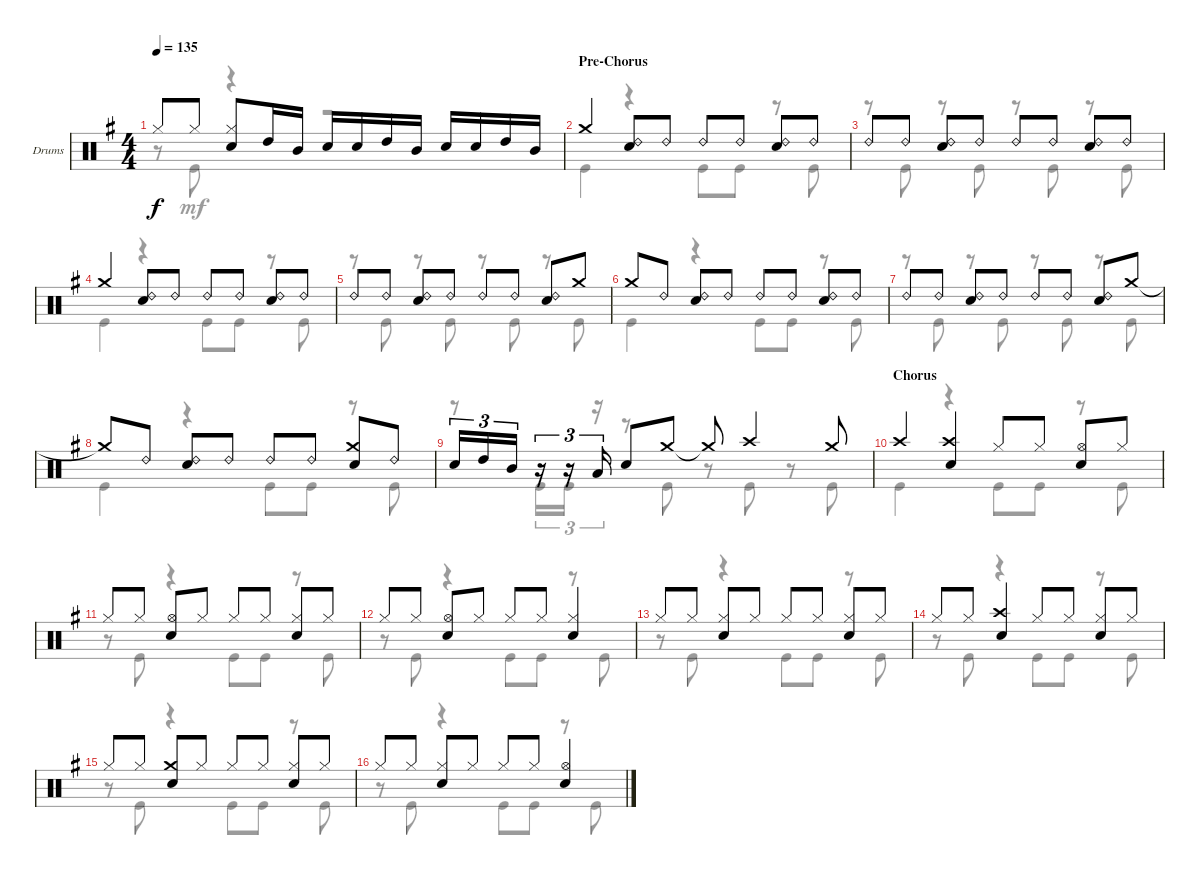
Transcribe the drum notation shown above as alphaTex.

\defaultSystemsLayout 4
\bracketExtendMode groupsimilarinstruments
\firstSystemTrackNameOrientation horizontal
\otherSystemsTrackNameOrientation horizontal
\track ("Drumkit" "Drums") {instrument percussion}
\staff {score}
\articulation defaults
\voice
\ts (4 4)
\tempo 135
\clef neutral
\ks g "Hi-Hat (closed)".8{dy f} "Hi-Hat (closed)".8
("Hi-Hat (closed)" "Snare (hit) 2").8 "High Tom (hit)".16 "Mid Tom (hit)".16 "Snare (hit) 2".16 "Snare (hit) 2".16 "High Tom (hit)".16 "Mid Tom (hit)".16 "Snare (hit) 2".16 "Snare (hit) 2".16 "High Tom (hit)".16 "Mid Tom (hit)".16 |
\section ("" "Pre-Chorus")
"Crash medium (hit)".4 ("Ride (bell) 2" "Snare (hit) 2").8 "Ride (bell) 2".8 "Ride (bell) 2".8 "Ride (bell) 2".8 ("Ride (bell) 2" "Snare (hit) 2").8 "Ride (bell) 2".8 |
"Ride (bell) 2".8 "Ride (bell) 2".8 ("Ride (bell) 2" "Snare (hit) 2").8 "Ride (bell) 2".8 "Ride (bell) 2".8 "Ride (bell) 2".8 ("Ride (bell) 2" "Snare (hit) 2").8 "Ride (bell) 2".8 |
"Crash medium (hit)".4 ("Ride (bell) 2" "Snare (hit) 2").8 "Ride (bell) 2".8 "Ride (bell) 2".8 "Ride (bell) 2".8 ("Ride (bell) 2" "Snare (hit) 2").8 "Ride (bell) 2".8 |
"Ride (bell) 2".8 "Ride (bell) 2".8 ("Ride (bell) 2" "Snare (hit) 2").8 "Ride (bell) 2".8 "Ride (bell) 2".8 "Ride (bell) 2".8 ("Ride (bell) 2" "Snare (hit) 2").8 "Crash medium (hit)".8 |
"Crash medium (hit)".8 "Ride (bell) 2".8 ("Ride (bell) 2" "Snare (hit) 2").8 "Ride (bell) 2".8 "Ride (bell) 2".8 "Ride (bell) 2".8 ("Ride (bell) 2" "Snare (hit) 2").8 "Ride (bell) 2".8 |
"Ride (bell) 2".8 "Ride (bell) 2".8 ("Ride (bell) 2" "Snare (hit) 2").8 "Ride (bell) 2".8 "Ride (bell) 2".8 "Ride (bell) 2".8 ("Ride (bell) 2" "Snare (hit) 2").8 "Crash medium (hit)".8 |
"Crash medium (hit)"{t}.8 "Ride (bell) 2".8 ("Ride (bell) 2" "Snare (hit) 2").8 "Ride (bell) 2".8 "Ride (bell) 2".8 "Ride (bell) 2".8 ("Crash medium (hit)" "Snare (hit) 2").8 "Ride (bell) 2".8 |
"Snare (hit) 2".16{tu (3 2)} "High Tom (hit)".16{tu (3 2)} "Mid Tom (hit)".16{tu (3 2)} r.16{tu (3 2)} r.16{tu (3 2)} "Low Tom (hit)".16{tu (3 2)} "Snare (hit) 2".8 "Crash medium (hit)".8 "Crash medium (hit)"{t}.8 "Crash high (hit)".4 "Crash medium (hit)".8 |
\section ("" "Chorus")
"Crash high (hit)".4 ("Crash high (hit)" "Snare (hit) 2").4 "Hi-Hat (closed)".8 "Hi-Hat (closed)".8 ("Hi-Hat (open)" "Snare (hit) 2").8 "Hi-Hat (closed)".8 |
"Hi-Hat (closed)".8 "Hi-Hat (closed)".8 ("Hi-Hat (open)" "Snare (hit) 2").8 "Hi-Hat (closed)".8 "Hi-Hat (closed)".8 "Hi-Hat (closed)".8 ("Hi-Hat (closed)" "Snare (hit) 2").8 "Hi-Hat (closed)".8 |
"Hi-Hat (closed)".8 "Hi-Hat (closed)".8 ("Hi-Hat (open)" "Snare (hit) 2").8 "Hi-Hat (closed)".8 "Hi-Hat (closed)".8 "Hi-Hat (closed)".8 ("Hi-Hat (closed)" "Snare (hit) 2").4 |
"Hi-Hat (closed)".8 "Hi-Hat (closed)".8 ("Hi-Hat (closed)" "Snare (hit) 2").8 "Hi-Hat (closed)".8 "Hi-Hat (closed)".8 "Hi-Hat (closed)".8 ("Hi-Hat (closed)" "Snare (hit) 2").8 "Hi-Hat (closed)".8 |
"Hi-Hat (closed)".8 "Hi-Hat (closed)".8 ("Crash high (hit)" "Snare (hit) 2").4 "Hi-Hat (closed)".8 "Hi-Hat (closed)".8 ("Hi-Hat (closed)" "Snare (hit) 2").8 "Hi-Hat (closed)".8 |
"Hi-Hat (closed)".8 "Hi-Hat (closed)".8 ("Crash medium (hit)" "Snare (hit) 2").8 "Hi-Hat (closed)".8 "Hi-Hat (closed)".8 "Hi-Hat (closed)".8 ("Hi-Hat (closed)" "Snare (hit) 2").8 "Hi-Hat (closed)".8 |
"Hi-Hat (closed)".8 "Hi-Hat (closed)".8 ("Hi-Hat (closed)" "Snare (hit) 2").8 "Hi-Hat (closed)".8 "Hi-Hat (closed)".8 "Hi-Hat (closed)".8 ("Hi-Hat (open)" "Snare (hit) 2").4
\voice
\clef neutral
\ottava regular
\simile none
\ks g
r.8{dy mf} "Kick (hit)".8 r.4 r.2 |
"Kick (hit)".4 r.4 "Kick (hit)".8 "Kick (hit)".8 r.8 "Kick (hit)".8 |
r.8 "Kick (hit)".8 r.8 "Kick (hit)".8 r.8 "Kick (hit)".8 r.8 "Kick (hit)".8 |
"Kick (hit)".4 r.4 "Kick (hit)".8 "Kick (hit)".8 r.8 "Kick (hit)".8 |
r.8 "Kick (hit)".8 r.8 "Kick (hit)".8 r.8 "Kick (hit)".8 r.8 "Kick (hit)".8 |
"Kick (hit)".4 r.4 "Kick (hit)".8 "Kick (hit)".8 r.8 "Kick (hit)".8 |
r.8 "Kick (hit)".8 r.8 "Kick (hit)".8 r.8 "Kick (hit)".8 r.8 "Kick (hit)".8 |
"Kick (hit)".4 r.4 "Kick (hit)".8 "Kick (hit)".8 r.8 "Kick (hit)".8 |
r.8 "Kick (hit)".16{tu (3 2)} "Kick (hit)".16{tu (3 2)} r.16{tu (3 2)} r.8 "Kick (hit)".8 r.8 "Kick (hit)".8 r.8 "Kick (hit)".8 |
"Kick (hit)".4 r.4 "Kick (hit)".8 "Kick (hit)".8 r.8 "Kick (hit)".8 |
r.8 "Kick (hit)".8 r.4 "Kick (hit)".8 "Kick (hit)".8 r.8 "Kick (hit)".8 |
r.8 "Kick (hit)".8 r.4 "Kick (hit)".8 "Kick (hit)".8 r.8 "Kick (hit)".8 |
r.8 "Kick (hit)".8 r.4 "Kick (hit)".8 "Kick (hit)".8 r.8 "Kick (hit)".8 |
r.8 "Kick (hit)".8 r.4 "Kick (hit)".8 "Kick (hit)".8 r.8 "Kick (hit)".8 |
r.8 "Kick (hit)".8 r.4 "Kick (hit)".8 "Kick (hit)".8 r.8 "Kick (hit)".8 |
r.8 "Kick (hit)".8 r.4 "Kick (hit)".8 "Kick (hit)".8 r.8 "Kick (hit)".8
